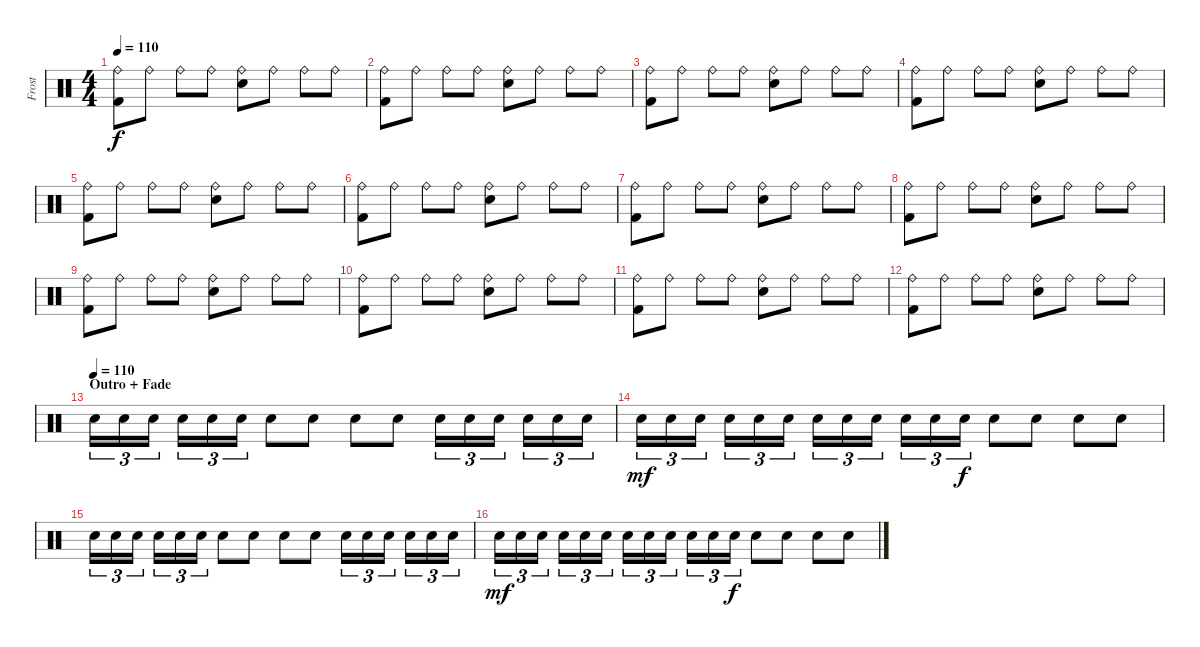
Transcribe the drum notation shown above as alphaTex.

\track ("Frost" "Frost") {instrument percussion}
\staff {score}
\articulation defaults
\ts (4 4)
\tempo 110
\clef neutral
\ks c
("Kick (hit) 2" "Ride (bell)").8{dy f} "Ride (bell)".8 "Ride (bell)".8 "Ride (bell)".8 ("Snare (hit) 2" "Ride (bell)").8 "Ride (bell)".8 "Ride (bell)".8 "Ride (bell)".8 |
("Kick (hit) 2" "Ride (bell)").8 "Ride (bell)".8 "Ride (bell)".8 "Ride (bell)".8 ("Snare (hit) 2" "Ride (bell)").8 "Ride (bell)".8 "Ride (bell)".8 "Ride (bell)".8 |
("Kick (hit) 2" "Ride (bell)").8 "Ride (bell)".8 "Ride (bell)".8 "Ride (bell)".8 ("Snare (hit) 2" "Ride (bell)").8 "Ride (bell)".8 "Ride (bell)".8 "Ride (bell)".8 |
("Kick (hit) 2" "Ride (bell)").8 "Ride (bell)".8 "Ride (bell)".8 "Ride (bell)".8 ("Snare (hit) 2" "Ride (bell)").8 "Ride (bell)".8 "Ride (bell)".8 "Ride (bell)".8 |
("Kick (hit) 2" "Ride (bell)").8 "Ride (bell)".8 "Ride (bell)".8 "Ride (bell)".8 ("Snare (hit) 2" "Ride (bell)").8 "Ride (bell)".8 "Ride (bell)".8 "Ride (bell)".8 |
("Kick (hit) 2" "Ride (bell)").8 "Ride (bell)".8 "Ride (bell)".8 "Ride (bell)".8 ("Snare (hit) 2" "Ride (bell)").8 "Ride (bell)".8 "Ride (bell)".8 "Ride (bell)".8 |
("Kick (hit) 2" "Ride (bell)").8 "Ride (bell)".8 "Ride (bell)".8 "Ride (bell)".8 ("Snare (hit) 2" "Ride (bell)").8 "Ride (bell)".8 "Ride (bell)".8 "Ride (bell)".8 |
("Kick (hit) 2" "Ride (bell)").8 "Ride (bell)".8 "Ride (bell)".8 "Ride (bell)".8 ("Snare (hit) 2" "Ride (bell)").8 "Ride (bell)".8 "Ride (bell)".8 "Ride (bell)".8 |
("Kick (hit) 2" "Ride (bell)").8 "Ride (bell)".8 "Ride (bell)".8 "Ride (bell)".8 ("Snare (hit) 2" "Ride (bell)").8 "Ride (bell)".8 "Ride (bell)".8 "Ride (bell)".8 |
("Kick (hit) 2" "Ride (bell)").8 "Ride (bell)".8 "Ride (bell)".8 "Ride (bell)".8 ("Snare (hit) 2" "Ride (bell)").8 "Ride (bell)".8 "Ride (bell)".8 "Ride (bell)".8 |
("Kick (hit) 2" "Ride (bell)").8 "Ride (bell)".8 "Ride (bell)".8 "Ride (bell)".8 ("Snare (hit) 2" "Ride (bell)").8 "Ride (bell)".8 "Ride (bell)".8 "Ride (bell)".8 |
("Kick (hit) 2" "Ride (bell)").8 "Ride (bell)".8 "Ride (bell)".8 "Ride (bell)".8 ("Snare (hit) 2" "Ride (bell)").8 "Ride (bell)".8 "Ride (bell)".8 "Ride (bell)".8 |
\section ("" "Outro + Fade")
\tempo (110)
"Snare (hit) 2".16{tu (3 2) volume 9} "Snare (hit) 2".16{tu (3 2)} "Snare (hit) 2".16{tu (3 2)} "Snare (hit) 2".16{tu (3 2)} "Snare (hit) 2".16{tu (3 2)} "Snare (hit) 2".16{tu (3 2)} "Snare (hit) 2".8 "Snare (hit) 2".8 "Snare (hit) 2".8 "Snare (hit) 2".8 "Snare (hit) 2".16{tu (3 2)} "Snare (hit) 2".16{tu (3 2)} "Snare (hit) 2".16{tu (3 2)} "Snare (hit) 2".16{tu (3 2)} "Snare (hit) 2".16{tu (3 2)} "Snare (hit) 2".16{tu (3 2)} |
"Snare (hit) 2".16{tu (3 2) dy mf} "Snare (hit) 2".16{tu (3 2)} "Snare (hit) 2".16{tu (3 2)} "Snare (hit) 2".16{tu (3 2)} "Snare (hit) 2".16{tu (3 2)} "Snare (hit) 2".16{tu (3 2)} "Snare (hit) 2".16{tu (3 2)} "Snare (hit) 2".16{tu (3 2)} "Snare (hit) 2".16{tu (3 2)} "Snare (hit) 2".16{tu (3 2)} "Snare (hit) 2".16{tu (3 2)} "Snare (hit) 2".16{tu (3 2) dy f} "Snare (hit) 2".8 "Snare (hit) 2".8 "Snare (hit) 2".8 "Snare (hit) 2".8 |
"Snare (hit) 2".16{tu (3 2)} "Snare (hit) 2".16{tu (3 2)} "Snare (hit) 2".16{tu (3 2)} "Snare (hit) 2".16{tu (3 2)} "Snare (hit) 2".16{tu (3 2)} "Snare (hit) 2".16{tu (3 2)} "Snare (hit) 2".8 "Snare (hit) 2".8 "Snare (hit) 2".8 "Snare (hit) 2".8 "Snare (hit) 2".16{tu (3 2)} "Snare (hit) 2".16{tu (3 2)} "Snare (hit) 2".16{tu (3 2)} "Snare (hit) 2".16{tu (3 2)} "Snare (hit) 2".16{tu (3 2)} "Snare (hit) 2".16{tu (3 2)} |
"Snare (hit) 2".16{tu (3 2) dy mf} "Snare (hit) 2".16{tu (3 2)} "Snare (hit) 2".16{tu (3 2)} "Snare (hit) 2".16{tu (3 2)} "Snare (hit) 2".16{tu (3 2)} "Snare (hit) 2".16{tu (3 2)} "Snare (hit) 2".16{tu (3 2)} "Snare (hit) 2".16{tu (3 2)} "Snare (hit) 2".16{tu (3 2)} "Snare (hit) 2".16{tu (3 2)} "Snare (hit) 2".16{tu (3 2)} "Snare (hit) 2".16{tu (3 2) dy f} "Snare (hit) 2".8 "Snare (hit) 2".8 "Snare (hit) 2".8 "Snare (hit) 2".8
